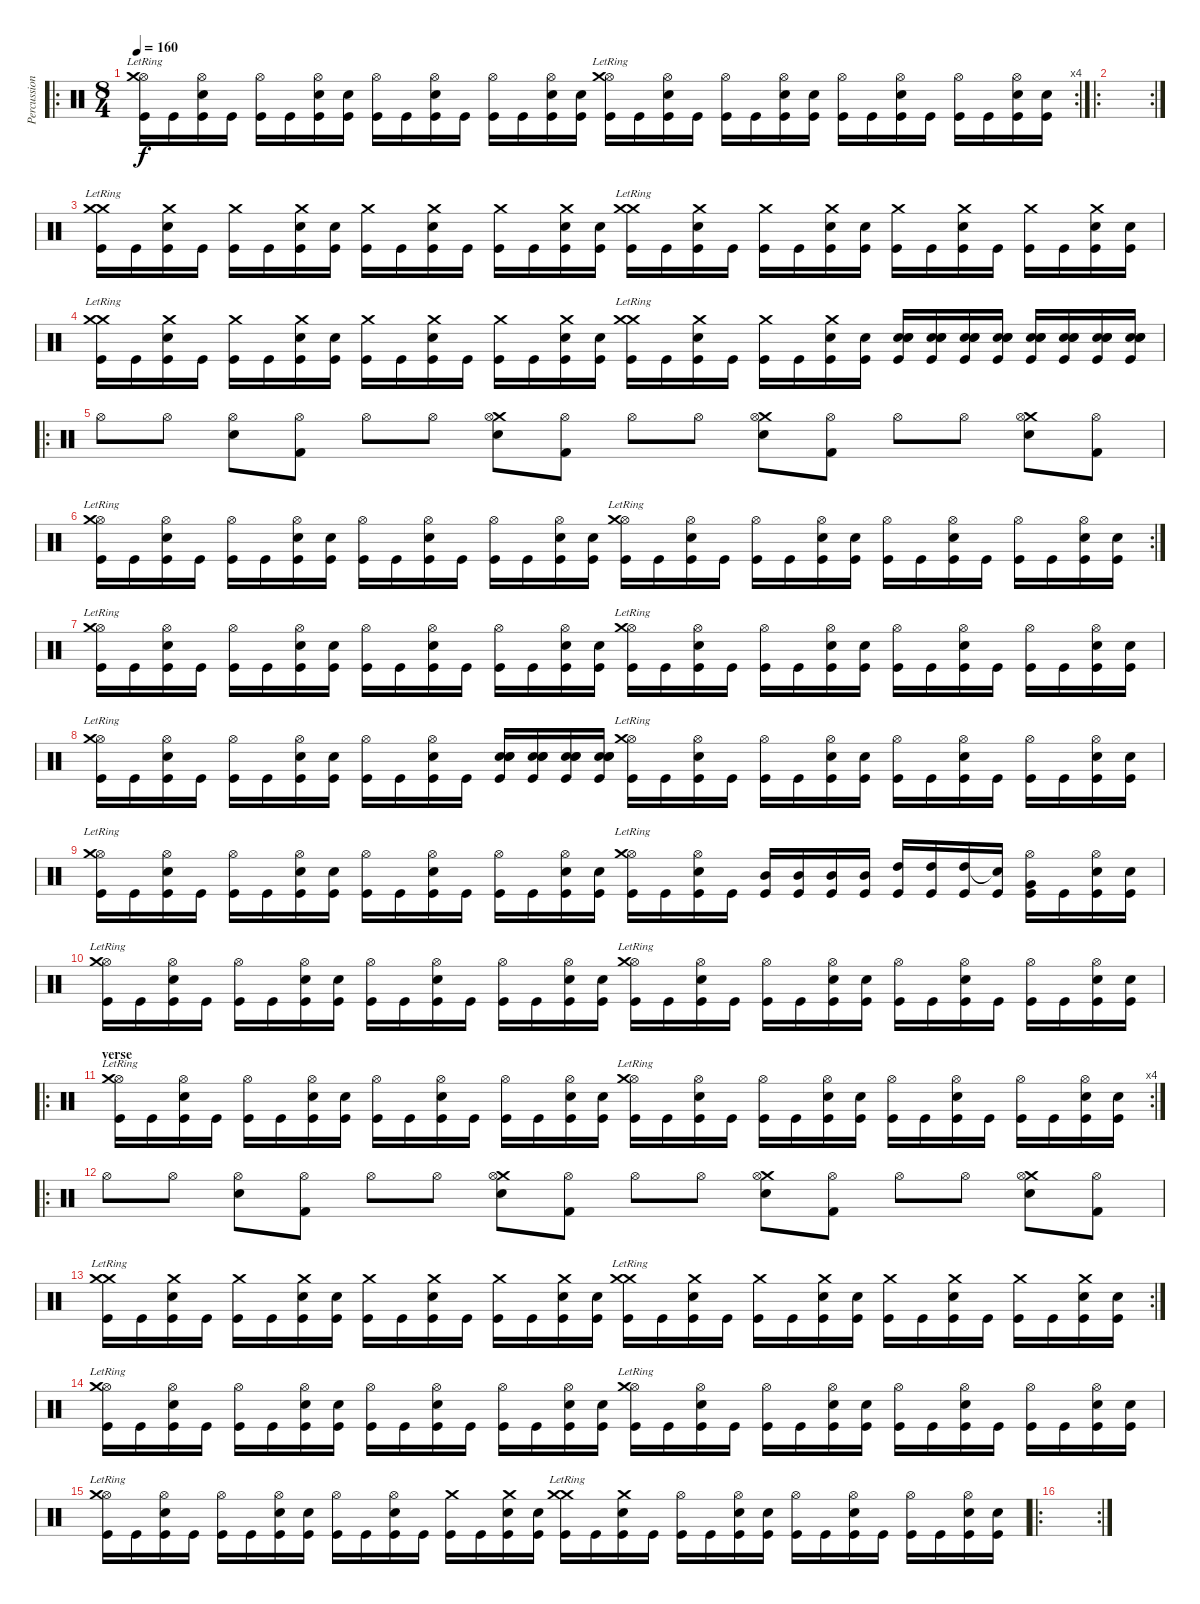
\track ("Percussion" "Percussion") {instrument percussion}
\staff {score}
\articulation defaults
\ro
\rc 4
\ts (8 4)
\tempo 160
\clef neutral
\ks c
("Hi-Hat (open)" "Crash medium (hit)"{lr} "Kick (hit)").16{dy f} "Kick (hit)".16 ("Hi-Hat (open)" "Snare (hit) 2" "Kick (hit)").16 "Kick (hit)".16 ("Hi-Hat (open)" "Kick (hit)").16 "Kick (hit)".16 ("Hi-Hat (open)" "Snare (hit) 2" "Kick (hit)").16 ("Snare (hit) 2" "Kick (hit)").16 ("Hi-Hat (open)" "Kick (hit)").16 "Kick (hit)".16 ("Hi-Hat (open)" "Snare (hit) 2" "Kick (hit)").16 "Kick (hit)".16 ("Hi-Hat (open)" "Kick (hit)").16 "Kick (hit)".16 ("Hi-Hat (open)" "Snare (hit) 2" "Kick (hit)").16 ("Snare (hit) 2" "Kick (hit)").16 ("Hi-Hat (open)" "Crash medium (hit)"{lr} "Kick (hit)").16 "Kick (hit)".16 ("Hi-Hat (open)" "Snare (hit) 2" "Kick (hit)").16 "Kick (hit)".16 ("Hi-Hat (open)" "Kick (hit)").16 "Kick (hit)".16 ("Hi-Hat (open)" "Snare (hit) 2" "Kick (hit)").16 ("Snare (hit) 2" "Kick (hit)").16 ("Hi-Hat (open)" "Kick (hit)").16 "Kick (hit)".16 ("Hi-Hat (open)" "Snare (hit) 2" "Kick (hit)").16 "Kick (hit)".16 ("Hi-Hat (open)" "Kick (hit)").16 "Kick (hit)".16 ("Hi-Hat (open)" "Snare (hit) 2" "Kick (hit)").16 ("Snare (hit) 2" "Kick (hit)").16 |
\ro
\rc 2
|
("Crash medium (hit)" "Crash medium (hit)"{lr} "Kick (hit)").16 "Kick (hit)".16 ("Crash medium (hit)" "Snare (hit) 2" "Kick (hit)").16 "Kick (hit)".16 ("Crash medium (hit)" "Kick (hit)").16 "Kick (hit)".16 ("Crash medium (hit)" "Snare (hit) 2" "Kick (hit)").16 ("Snare (hit) 2" "Kick (hit)").16 ("Crash medium (hit)" "Kick (hit)").16 "Kick (hit)".16 ("Crash medium (hit)" "Snare (hit) 2" "Kick (hit)").16 "Kick (hit)".16 ("Crash medium (hit)" "Kick (hit)").16 "Kick (hit)".16 ("Crash medium (hit)" "Snare (hit) 2" "Kick (hit)").16 ("Snare (hit) 2" "Kick (hit)").16 ("Crash medium (hit)" "Crash medium (hit)"{lr} "Kick (hit)").16 "Kick (hit)".16 ("Crash medium (hit)" "Snare (hit) 2" "Kick (hit)").16 "Kick (hit)".16 ("Crash medium (hit)" "Kick (hit)").16 "Kick (hit)".16 ("Crash medium (hit)" "Snare (hit) 2" "Kick (hit)").16 ("Snare (hit) 2" "Kick (hit)").16 ("Crash medium (hit)" "Kick (hit)").16 "Kick (hit)".16 ("Crash medium (hit)" "Snare (hit) 2" "Kick (hit)").16 "Kick (hit)".16 ("Crash medium (hit)" "Kick (hit)").16 "Kick (hit)".16 ("Crash medium (hit)" "Snare (hit) 2" "Kick (hit)").16 ("Snare (hit) 2" "Kick (hit)").16 |
("Crash medium (hit)" "Crash medium (hit)"{lr} "Kick (hit)").16 "Kick (hit)".16 ("Crash medium (hit)" "Snare (hit) 2" "Kick (hit)").16 "Kick (hit)".16 ("Crash medium (hit)" "Kick (hit)").16 "Kick (hit)".16 ("Crash medium (hit)" "Snare (hit) 2" "Kick (hit)").16 ("Snare (hit) 2" "Kick (hit)").16 ("Crash medium (hit)" "Kick (hit)").16 "Kick (hit)".16 ("Crash medium (hit)" "Snare (hit) 2" "Kick (hit)").16 "Kick (hit)".16 ("Crash medium (hit)" "Kick (hit)").16 "Kick (hit)".16 ("Crash medium (hit)" "Snare (hit) 2" "Kick (hit)").16 ("Snare (hit) 2" "Kick (hit)").16 ("Crash medium (hit)" "Crash medium (hit)"{lr} "Kick (hit)").16 "Kick (hit)".16 ("Crash medium (hit)" "Snare (hit) 2" "Kick (hit)").16 "Kick (hit)".16 ("Crash medium (hit)" "Kick (hit)").16 "Kick (hit)".16 ("Crash medium (hit)" "Snare (hit) 2" "Kick (hit)").16 ("Snare (hit) 2" "Kick (hit)").16 ("Electric Snare (hit)" "Snare (hit) 2" "Snare (hit) 2" "Kick (hit)").16 ("Electric Snare (hit)" "Snare (hit) 2" "Snare (hit) 2" "Kick (hit)").16 ("Electric Snare (hit)" "Snare (hit) 2" "Snare (hit) 2" "Kick (hit)").16 ("Electric Snare (hit)" "Snare (hit) 2" "Snare (hit) 2" "Kick (hit)").16 ("Electric Snare (hit)" "Snare (hit) 2" "Snare (hit) 2" "Kick (hit)").16 ("Electric Snare (hit)" "Snare (hit) 2" "Snare (hit) 2" "Kick (hit)").16 ("Electric Snare (hit)" "Snare (hit) 2" "Snare (hit) 2" "Kick (hit)").16 ("Electric Snare (hit)" "Snare (hit) 2" "Snare (hit) 2" "Kick (hit)").16 |
\ro "Hi-Hat (open)".8 "Hi-Hat (open)".8
("Snare (hit) 2" "Hi-Hat (open)").8 ("Kick (hit) 2" "Hi-Hat (open)").8 "Hi-Hat (open)".8 "Hi-Hat (open)".8 ("Crash medium (hit)" "Snare (hit) 2" "Hi-Hat (open)").8 ("Kick (hit) 2" "Hi-Hat (open)").8 "Hi-Hat (open)".8 "Hi-Hat (open)".8 ("Crash medium (hit)" "Snare (hit) 2" "Hi-Hat (open)").8 ("Kick (hit) 2" "Hi-Hat (open)").8 "Hi-Hat (open)".8 "Hi-Hat (open)".8 ("Crash medium (hit)" "Snare (hit) 2" "Hi-Hat (open)").8 ("Kick (hit) 2" "Hi-Hat (open)").8 |
\rc 2
("Hi-Hat (open)" "Crash medium (hit)"{lr} "Kick (hit)").16 "Kick (hit)".16 ("Hi-Hat (open)" "Snare (hit) 2" "Kick (hit)").16 "Kick (hit)".16 ("Hi-Hat (open)" "Kick (hit)").16 "Kick (hit)".16 ("Hi-Hat (open)" "Snare (hit) 2" "Kick (hit)").16 ("Snare (hit) 2" "Kick (hit)").16 ("Hi-Hat (open)" "Kick (hit)").16 "Kick (hit)".16 ("Hi-Hat (open)" "Snare (hit) 2" "Kick (hit)").16 "Kick (hit)".16 ("Hi-Hat (open)" "Kick (hit)").16 "Kick (hit)".16 ("Hi-Hat (open)" "Snare (hit) 2" "Kick (hit)").16 ("Snare (hit) 2" "Kick (hit)").16 ("Hi-Hat (open)" "Crash medium (hit)"{lr} "Kick (hit)").16 "Kick (hit)".16 ("Hi-Hat (open)" "Snare (hit) 2" "Kick (hit)").16 "Kick (hit)".16 ("Hi-Hat (open)" "Kick (hit)").16 "Kick (hit)".16 ("Hi-Hat (open)" "Snare (hit) 2" "Kick (hit)").16 ("Snare (hit) 2" "Kick (hit)").16 ("Hi-Hat (open)" "Kick (hit)").16 "Kick (hit)".16 ("Hi-Hat (open)" "Snare (hit) 2" "Kick (hit)").16 "Kick (hit)".16 ("Hi-Hat (open)" "Kick (hit)").16 "Kick (hit)".16 ("Hi-Hat (open)" "Snare (hit) 2" "Kick (hit)").16 ("Snare (hit) 2" "Kick (hit)").16 |
("Hi-Hat (open)" "Crash medium (hit)"{lr} "Kick (hit)").16 "Kick (hit)".16 ("Hi-Hat (open)" "Snare (hit) 2" "Kick (hit)").16 "Kick (hit)".16 ("Hi-Hat (open)" "Kick (hit)").16 "Kick (hit)".16 ("Hi-Hat (open)" "Snare (hit) 2" "Kick (hit)").16 ("Snare (hit) 2" "Kick (hit)").16 ("Hi-Hat (open)" "Kick (hit)").16 "Kick (hit)".16 ("Hi-Hat (open)" "Snare (hit) 2" "Kick (hit)").16 "Kick (hit)".16 ("Hi-Hat (open)" "Kick (hit)").16 "Kick (hit)".16 ("Hi-Hat (open)" "Snare (hit) 2" "Kick (hit)").16 ("Snare (hit) 2" "Kick (hit)").16 ("Hi-Hat (open)" "Crash medium (hit)"{lr} "Kick (hit)").16 "Kick (hit)".16 ("Hi-Hat (open)" "Snare (hit) 2" "Kick (hit)").16 "Kick (hit)".16 ("Hi-Hat (open)" "Kick (hit)").16 "Kick (hit)".16 ("Hi-Hat (open)" "Snare (hit) 2" "Kick (hit)").16 ("Snare (hit) 2" "Kick (hit)").16 ("Hi-Hat (open)" "Kick (hit)").16 "Kick (hit)".16 ("Hi-Hat (open)" "Snare (hit) 2" "Kick (hit)").16 "Kick (hit)".16 ("Hi-Hat (open)" "Kick (hit)").16 "Kick (hit)".16 ("Hi-Hat (open)" "Snare (hit) 2" "Kick (hit)").16 ("Snare (hit) 2" "Kick (hit)").16 |
("Hi-Hat (open)" "Crash medium (hit)"{lr} "Kick (hit)").16 "Kick (hit)".16 ("Hi-Hat (open)" "Snare (hit) 2" "Kick (hit)").16 "Kick (hit)".16 ("Hi-Hat (open)" "Kick (hit)").16 "Kick (hit)".16 ("Hi-Hat (open)" "Snare (hit) 2" "Kick (hit)").16 ("Snare (hit) 2" "Kick (hit)").16 ("Hi-Hat (open)" "Kick (hit)").16 "Kick (hit)".16 ("Hi-Hat (open)" "Snare (hit) 2" "Kick (hit)").16 "Kick (hit)".16 ("Electric Snare (hit)" "Snare (hit) 2" "Snare (hit) 2" "Kick (hit)").16 ("Electric Snare (hit)" "Snare (hit) 2" "Snare (hit) 2" "Kick (hit)").16 ("Electric Snare (hit)" "Snare (hit) 2" "Snare (hit) 2" "Kick (hit)").16 ("Electric Snare (hit)" "Snare (hit) 2" "Snare (hit) 2" "Kick (hit)").16 ("Hi-Hat (open)" "Crash medium (hit)"{lr} "Kick (hit)").16 "Kick (hit)".16 ("Hi-Hat (open)" "Snare (hit) 2" "Kick (hit)").16 "Kick (hit)".16 ("Hi-Hat (open)" "Kick (hit)").16 "Kick (hit)".16 ("Hi-Hat (open)" "Snare (hit) 2" "Kick (hit)").16 ("Snare (hit) 2" "Kick (hit)").16 ("Hi-Hat (open)" "Kick (hit)").16 "Kick (hit)".16 ("Hi-Hat (open)" "Snare (hit) 2" "Kick (hit)").16 "Kick (hit)".16 ("Hi-Hat (open)" "Kick (hit)").16 "Kick (hit)".16 ("Hi-Hat (open)" "Snare (hit) 2" "Kick (hit)").16 ("Snare (hit) 2" "Kick (hit)").16 |
("Hi-Hat (open)" "Crash medium (hit)"{lr} "Kick (hit)").16 "Kick (hit)".16 ("Hi-Hat (open)" "Snare (hit) 2" "Kick (hit)").16 "Kick (hit)".16 ("Hi-Hat (open)" "Kick (hit)").16 "Kick (hit)".16 ("Hi-Hat (open)" "Snare (hit) 2" "Kick (hit)").16 ("Snare (hit) 2" "Kick (hit)").16 ("Hi-Hat (open)" "Kick (hit)").16 "Kick (hit)".16 ("Hi-Hat (open)" "Snare (hit) 2" "Kick (hit)").16 "Kick (hit)".16 ("Hi-Hat (open)" "Kick (hit)").16 "Kick (hit)".16 ("Hi-Hat (open)" "Snare (hit) 2" "Kick (hit)").16 ("Snare (hit) 2" "Kick (hit)").16 ("Hi-Hat (open)" "Crash medium (hit)"{lr} "Kick (hit)").16 "Kick (hit)".16 ("Hi-Hat (open)" "Snare (hit) 2" "Kick (hit)").16 "Kick (hit)".16 ("Mid Tom (hit)" "Kick (hit)").16 ("Mid Tom (hit)" "Kick (hit)").16 ("Mid Tom (hit)" "Kick (hit)").16 ("Mid Tom (hit)" "Kick (hit)").16 ("High Tom (hit)" "Kick (hit)").16 ("High Tom (hit)" "Kick (hit)").16 ("High Tom (hit)" "Kick (hit)").16 ("Snare (hit)"{t} "Kick (hit)").16 ("Hi-Hat (open)" "Very Low Tom (hit)" "Kick (hit)").16 "Kick (hit)".16 ("Hi-Hat (open)" "Snare (hit) 2" "Kick (hit)").16 ("Snare (hit) 2" "Kick (hit)").16 |
("Hi-Hat (open)" "Crash medium (hit)"{lr} "Kick (hit)").16 "Kick (hit)".16 ("Hi-Hat (open)" "Snare (hit) 2" "Kick (hit)").16 "Kick (hit)".16 ("Hi-Hat (open)" "Kick (hit)").16 "Kick (hit)".16 ("Hi-Hat (open)" "Snare (hit) 2" "Kick (hit)").16 ("Snare (hit) 2" "Kick (hit)").16 ("Hi-Hat (open)" "Kick (hit)").16 "Kick (hit)".16 ("Hi-Hat (open)" "Snare (hit) 2" "Kick (hit)").16 "Kick (hit)".16 ("Hi-Hat (open)" "Kick (hit)").16 "Kick (hit)".16 ("Hi-Hat (open)" "Snare (hit) 2" "Kick (hit)").16 ("Snare (hit) 2" "Kick (hit)").16 ("Hi-Hat (open)" "Crash medium (hit)"{lr} "Kick (hit)").16 "Kick (hit)".16 ("Hi-Hat (open)" "Snare (hit) 2" "Kick (hit)").16 "Kick (hit)".16 ("Hi-Hat (open)" "Kick (hit)").16 "Kick (hit)".16 ("Hi-Hat (open)" "Snare (hit) 2" "Kick (hit)").16 ("Snare (hit) 2" "Kick (hit)").16 ("Hi-Hat (open)" "Kick (hit)").16 "Kick (hit)".16 ("Hi-Hat (open)" "Snare (hit) 2" "Kick (hit)").16 "Kick (hit)".16 ("Hi-Hat (open)" "Kick (hit)").16 "Kick (hit)".16 ("Hi-Hat (open)" "Snare (hit) 2" "Kick (hit)").16 ("Snare (hit) 2" "Kick (hit)").16 |
\ro
\rc 4
\section ("" "verse")
("Hi-Hat (open)" "Crash medium (hit)"{lr} "Kick (hit)").16 "Kick (hit)".16 ("Hi-Hat (open)" "Snare (hit) 2" "Kick (hit)").16 "Kick (hit)".16 ("Hi-Hat (open)" "Kick (hit)").16 "Kick (hit)".16 ("Hi-Hat (open)" "Snare (hit) 2" "Kick (hit)").16 ("Snare (hit) 2" "Kick (hit)").16 ("Hi-Hat (open)" "Kick (hit)").16 "Kick (hit)".16 ("Hi-Hat (open)" "Snare (hit) 2" "Kick (hit)").16 "Kick (hit)".16 ("Hi-Hat (open)" "Kick (hit)").16 "Kick (hit)".16 ("Hi-Hat (open)" "Snare (hit) 2" "Kick (hit)").16 ("Snare (hit) 2" "Kick (hit)").16 ("Hi-Hat (open)" "Crash medium (hit)"{lr} "Kick (hit)").16 "Kick (hit)".16 ("Hi-Hat (open)" "Snare (hit) 2" "Kick (hit)").16 "Kick (hit)".16 ("Hi-Hat (open)" "Kick (hit)").16 "Kick (hit)".16 ("Hi-Hat (open)" "Snare (hit) 2" "Kick (hit)").16 ("Snare (hit) 2" "Kick (hit)").16 ("Hi-Hat (open)" "Kick (hit)").16 "Kick (hit)".16 ("Hi-Hat (open)" "Snare (hit) 2" "Kick (hit)").16 "Kick (hit)".16 ("Hi-Hat (open)" "Kick (hit)").16 "Kick (hit)".16 ("Hi-Hat (open)" "Snare (hit) 2" "Kick (hit)").16 ("Snare (hit) 2" "Kick (hit)").16 |
\ro "Hi-Hat (open)".8 "Hi-Hat (open)".8
("Snare (hit) 2" "Hi-Hat (open)").8 ("Kick (hit) 2" "Hi-Hat (open)").8 "Hi-Hat (open)".8 "Hi-Hat (open)".8 ("Crash medium (hit)" "Snare (hit) 2" "Hi-Hat (open)").8 ("Kick (hit) 2" "Hi-Hat (open)").8 "Hi-Hat (open)".8 "Hi-Hat (open)".8 ("Crash medium (hit)" "Snare (hit) 2" "Hi-Hat (open)").8 ("Kick (hit) 2" "Hi-Hat (open)").8 "Hi-Hat (open)".8 "Hi-Hat (open)".8 ("Crash medium (hit)" "Snare (hit) 2" "Hi-Hat (open)").8 ("Kick (hit) 2" "Hi-Hat (open)").8 |
\rc 2
("Crash medium (hit)" "Crash medium (hit)"{lr} "Kick (hit)").16 "Kick (hit)".16 ("Crash medium (hit)" "Snare (hit) 2" "Kick (hit)").16 "Kick (hit)".16 ("Crash medium (hit)" "Kick (hit)").16 "Kick (hit)".16 ("Crash medium (hit)" "Snare (hit) 2" "Kick (hit)").16 ("Snare (hit) 2" "Kick (hit)").16 ("Crash medium (hit)" "Kick (hit)").16 "Kick (hit)".16 ("Crash medium (hit)" "Snare (hit) 2" "Kick (hit)").16 "Kick (hit)".16 ("Crash medium (hit)" "Kick (hit)").16 "Kick (hit)".16 ("Crash medium (hit)" "Snare (hit) 2" "Kick (hit)").16 ("Snare (hit) 2" "Kick (hit)").16 ("Crash medium (hit)" "Crash medium (hit)"{lr} "Kick (hit)").16 "Kick (hit)".16 ("Crash medium (hit)" "Snare (hit) 2" "Kick (hit)").16 "Kick (hit)".16 ("Crash medium (hit)" "Kick (hit)").16 "Kick (hit)".16 ("Crash medium (hit)" "Snare (hit) 2" "Kick (hit)").16 ("Snare (hit) 2" "Kick (hit)").16 ("Crash medium (hit)" "Kick (hit)").16 "Kick (hit)".16 ("Crash medium (hit)" "Snare (hit) 2" "Kick (hit)").16 "Kick (hit)".16 ("Crash medium (hit)" "Kick (hit)").16 "Kick (hit)".16 ("Crash medium (hit)" "Snare (hit) 2" "Kick (hit)").16 ("Snare (hit) 2" "Kick (hit)").16 |
("Hi-Hat (open)" "Crash medium (hit)"{lr} "Kick (hit)").16 "Kick (hit)".16 ("Hi-Hat (open)" "Snare (hit) 2" "Kick (hit)").16 "Kick (hit)".16 ("Hi-Hat (open)" "Kick (hit)").16 "Kick (hit)".16 ("Hi-Hat (open)" "Snare (hit) 2" "Kick (hit)").16 ("Snare (hit) 2" "Kick (hit)").16 ("Hi-Hat (open)" "Kick (hit)").16 "Kick (hit)".16 ("Hi-Hat (open)" "Snare (hit) 2" "Kick (hit)").16 "Kick (hit)".16 ("Hi-Hat (open)" "Kick (hit)").16 "Kick (hit)".16 ("Hi-Hat (open)" "Snare (hit) 2" "Kick (hit)").16 ("Snare (hit) 2" "Kick (hit)").16 ("Hi-Hat (open)" "Crash medium (hit)"{lr} "Kick (hit)").16 "Kick (hit)".16 ("Hi-Hat (open)" "Snare (hit) 2" "Kick (hit)").16 "Kick (hit)".16 ("Hi-Hat (open)" "Kick (hit)").16 "Kick (hit)".16 ("Hi-Hat (open)" "Snare (hit) 2" "Kick (hit)").16 ("Snare (hit) 2" "Kick (hit)").16 ("Hi-Hat (open)" "Kick (hit)").16 "Kick (hit)".16 ("Hi-Hat (open)" "Snare (hit) 2" "Kick (hit)").16 "Kick (hit)".16 ("Hi-Hat (open)" "Kick (hit)").16 "Kick (hit)".16 ("Hi-Hat (open)" "Snare (hit) 2" "Kick (hit)").16 ("Snare (hit) 2" "Kick (hit)").16 |
("Hi-Hat (open)" "Crash medium (hit)"{lr} "Kick (hit)").16 "Kick (hit)".16 ("Hi-Hat (open)" "Snare (hit) 2" "Kick (hit)").16 "Kick (hit)".16 ("Hi-Hat (open)" "Kick (hit)").16 "Kick (hit)".16 ("Hi-Hat (open)" "Snare (hit) 2" "Kick (hit)").16 ("Snare (hit) 2" "Kick (hit)").16 ("Hi-Hat (open)" "Kick (hit)").16 "Kick (hit)".16 ("Hi-Hat (open)" "Snare (hit) 2" "Kick (hit)").16 "Kick (hit)".16 ("Crash medium (hit)" "Kick (hit)").16 "Kick (hit)".16 ("Crash medium (hit)" "Snare (hit) 2" "Kick (hit)").16 ("Snare (hit) 2" "Kick (hit)").16 ("Crash medium (hit)" "Crash medium (hit)"{lr} "Kick (hit)").16 "Kick (hit)".16 ("Crash medium (hit)" "Snare (hit) 2" "Kick (hit)").16 "Kick (hit)".16 ("Hi-Hat (open)" "Kick (hit)").16 "Kick (hit)".16 ("Hi-Hat (open)" "Snare (hit) 2" "Kick (hit)").16 ("Snare (hit) 2" "Kick (hit)").16 ("Hi-Hat (open)" "Kick (hit)").16 "Kick (hit)".16 ("Hi-Hat (open)" "Snare (hit) 2" "Kick (hit)").16 "Kick (hit)".16 ("Hi-Hat (open)" "Kick (hit)").16 "Kick (hit)".16 ("Hi-Hat (open)" "Snare (hit) 2" "Kick (hit)").16 ("Snare (hit) 2" "Kick (hit)").16 |
\ro
\rc 2
